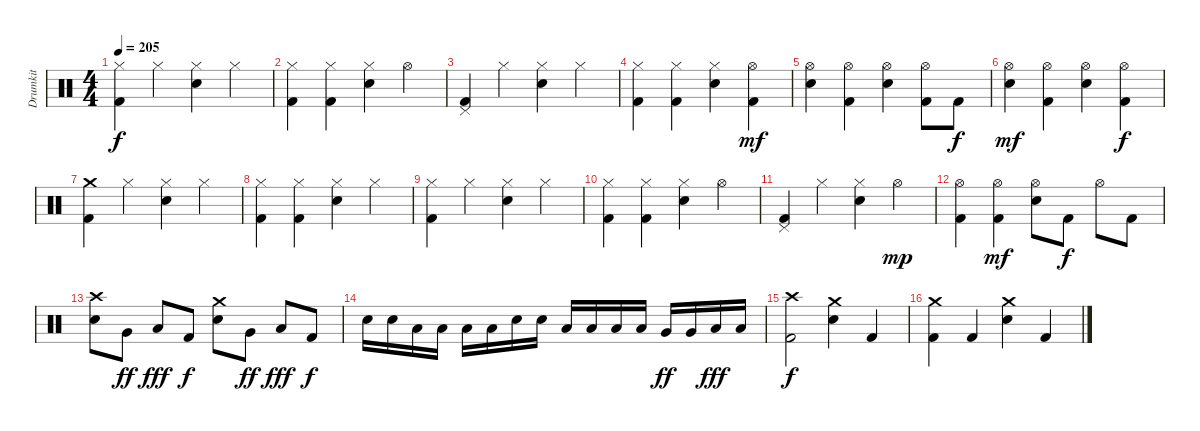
\track ("Drumkit" "Drumkit") {instrument percussion}
\staff {score}
\articulation defaults
\ts (4 4)
\tempo 205
\clef neutral
\ks c
("Hi-Hat (closed)" "Kick (hit) 2").4{dy f} "Hi-Hat (closed)".4 ("Hi-Hat (closed)" "Electric Snare (hit)").4 "Hi-Hat (closed)".4 |
("Hi-Hat (closed)" "Kick (hit) 2").4 ("Hi-Hat (closed)" "Kick (hit) 2").4 ("Hi-Hat (closed)" "Electric Snare (hit)").4 "Hi-Hat (open)".4 |
("Pedal Hi-Hat (hit)" "Kick (hit) 2").4 "Hi-Hat (closed)".4 ("Hi-Hat (closed)" "Electric Snare (hit)").4 "Hi-Hat (closed)".4 |
("Hi-Hat (closed)" "Kick (hit) 2").4 ("Hi-Hat (closed)" "Kick (hit) 2").4 ("Hi-Hat (closed)" "Electric Snare (hit)").4 ("Hi-Hat (open)" "Kick (hit) 2").4{dy mf} |
("Hi-Hat (open)" "Electric Snare (hit)").4 ("Hi-Hat (open)" "Kick (hit) 2").4 ("Hi-Hat (open)" "Electric Snare (hit)").4 ("Hi-Hat (open)" "Kick (hit) 2").8 "Kick (hit) 2".8{dy f} |
("Hi-Hat (open)" "Electric Snare (hit)").4{dy mf} ("Hi-Hat (open)" "Kick (hit) 2").4 ("Hi-Hat (open)" "Electric Snare (hit)").4 ("Hi-Hat (open)" "Kick (hit) 2").4{dy f} |
("Crash medium (hit)" "Kick (hit) 2").4 "Hi-Hat (closed)".4 ("Hi-Hat (closed)" "Electric Snare (hit)").4 "Hi-Hat (closed)".4 |
("Hi-Hat (closed)" "Kick (hit) 2").4 ("Hi-Hat (closed)" "Kick (hit) 2").4 ("Hi-Hat (closed)" "Electric Snare (hit)").4 "Hi-Hat (closed)".4 |
("Hi-Hat (closed)" "Kick (hit) 2").4 "Hi-Hat (closed)".4 ("Hi-Hat (closed)" "Electric Snare (hit)").4 "Hi-Hat (closed)".4 |
("Hi-Hat (closed)" "Kick (hit) 2").4 ("Hi-Hat (closed)" "Kick (hit) 2").4 ("Hi-Hat (closed)" "Electric Snare (hit)").4 "Hi-Hat (open)".4 |
("Pedal Hi-Hat (hit)" "Kick (hit) 2").4 "Hi-Hat (closed)".4 ("Hi-Hat (closed)" "Electric Snare (hit)").4 "Hi-Hat (open)".4{dy mp} |
("Hi-Hat (open)" "Kick (hit) 2").4 ("Hi-Hat (open)" "Kick (hit) 2").4{dy mf} ("Hi-Hat (open)" "Electric Snare (hit)").8 "Kick (hit) 2".8{dy f} "Hi-Hat (open)".8 "Kick (hit) 2".8 |
("Crash high (hit)" "Electric Snare (hit)").8 "Very Low Tom (hit)".8{dy ff} "Low Floor Tom (hit)".8{dy fff} "Kick (hit) 2".8{dy f} ("Crash medium (hit)" "Electric Snare (hit)").8 "Very Low Tom (hit)".8{dy ff} "Low Floor Tom (hit)".8{dy fff} "Kick (hit) 2".8{dy f} |
"Electric Snare (hit)".16 "Electric Snare (hit)".16 "Low Tom (hit)".16 "Low Tom (hit)".16 "Low Tom (hit)".16 "Low Tom (hit)".16 "Electric Snare (hit)".16 "Electric Snare (hit)".16 "Low Tom (hit)".16 "Low Tom (hit)".16 "Low Tom (hit)".16 "Low Tom (hit)".16 "Very Low Tom (hit)".16{dy ff} "Very Low Tom (hit)".16 "Low Floor Tom (hit)".16{dy fff} "Low Floor Tom (hit)".16 |
("Crash high (hit)" "Kick (hit) 2").2{dy f} ("Crash medium (hit)" "Electric Snare (hit)").4 "Kick (hit) 2".4 |
("Crash medium (hit)" "Kick (hit) 2").4 "Kick (hit) 2".4 ("Crash medium (hit)" "Electric Snare (hit)").4 "Kick (hit) 2".4
